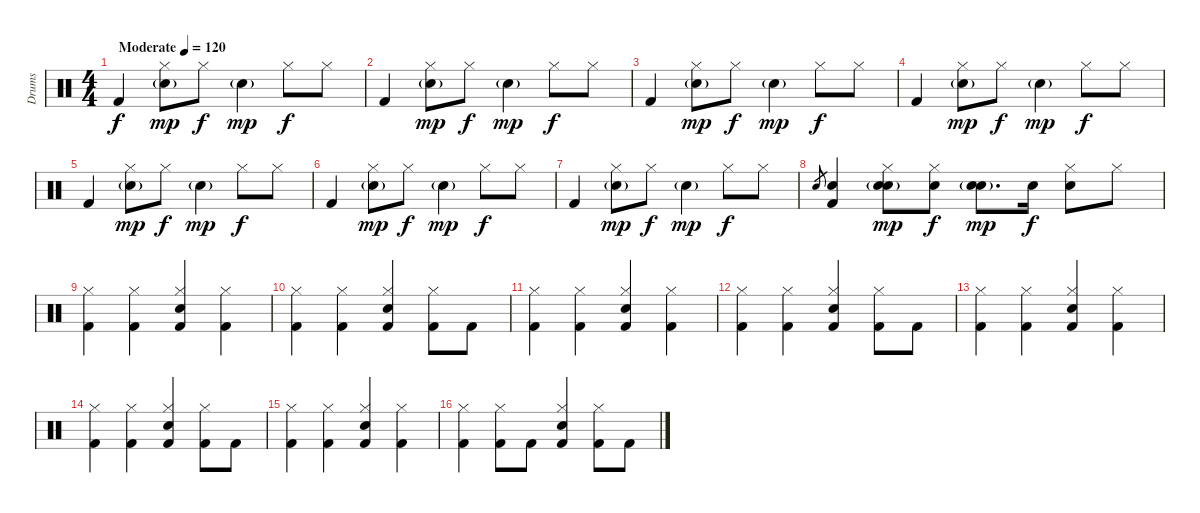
\track ("Drums" "Drums") {instrument percussion}
\staff {score}
\articulation defaults
\ts (4 4)
\tempo (120 "Moderate")
\clef neutral
\ks c "Kick (hit) 2".4{dy f}
("Hi-Hat (closed)" "Snare (hit) 2"{g}).8{dy mp} "Hi-Hat (closed)".8{dy f} "Snare (hit) 2"{g}.4{dy mp} "Hi-Hat (closed)".8{dy f} "Hi-Hat (closed)".8 |
"Kick (hit) 2".4 ("Hi-Hat (closed)" "Snare (hit) 2"{g}).8{dy mp} "Hi-Hat (closed)".8{dy f} "Snare (hit) 2"{g}.4{dy mp} "Hi-Hat (closed)".8{dy f} "Hi-Hat (closed)".8 |
"Kick (hit) 2".4 ("Hi-Hat (closed)" "Snare (hit) 2"{g}).8{dy mp} "Hi-Hat (closed)".8{dy f} "Snare (hit) 2"{g}.4{dy mp} "Hi-Hat (closed)".8{dy f} "Hi-Hat (closed)".8 |
"Kick (hit) 2".4 ("Hi-Hat (closed)" "Snare (hit) 2"{g}).8{dy mp} "Hi-Hat (closed)".8{dy f} "Snare (hit) 2"{g}.4{dy mp} "Hi-Hat (closed)".8{dy f} "Hi-Hat (closed)".8 |
"Kick (hit) 2".4 ("Hi-Hat (closed)" "Snare (hit) 2"{g}).8{dy mp} "Hi-Hat (closed)".8{dy f} "Snare (hit) 2"{g}.4{dy mp} "Hi-Hat (closed)".8{dy f} "Hi-Hat (closed)".8 |
"Kick (hit) 2".4 ("Hi-Hat (closed)" "Snare (hit) 2"{g}).8{dy mp} "Hi-Hat (closed)".8{dy f} "Snare (hit) 2"{g}.4{dy mp} "Hi-Hat (closed)".8{dy f} "Hi-Hat (closed)".8 |
"Kick (hit) 2".4 ("Hi-Hat (closed)" "Snare (hit) 2"{g}).8{dy mp} "Hi-Hat (closed)".8{dy f} "Snare (hit) 2"{g}.4{dy mp} "Hi-Hat (closed)".8{dy f} "Hi-Hat (closed)".8 |
"Electric Snare (hit)".8{gr} ("Electric Snare (hit)" "Kick (hit) 2").4 ("Hi-Hat (closed)" "Snare (hit) 2"{g} "Electric Snare (hit)").8{dy mp} ("Hi-Hat (closed)" "Electric Snare (hit)").8{dy f} ("Snare (hit) 2"{g} "Electric Snare (hit)").8{d dy mp} "Electric Snare (hit)".16{dy f} ("Hi-Hat (closed)" "Electric Snare (hit)").8 "Hi-Hat (closed)".8 |
("Hi-Hat (closed)" "Kick (hit) 2").4 ("Hi-Hat (closed)" "Kick (hit) 2").4 ("Hi-Hat (closed)" "Snare (hit) 2" "Kick (hit) 2").4 ("Hi-Hat (closed)" "Kick (hit) 2").4 |
("Hi-Hat (closed)" "Kick (hit) 2").4 ("Hi-Hat (closed)" "Kick (hit) 2").4 ("Hi-Hat (closed)" "Snare (hit) 2" "Kick (hit) 2").4 ("Hi-Hat (closed)" "Kick (hit) 2").8 "Kick (hit) 2".8 |
("Hi-Hat (closed)" "Kick (hit) 2").4 ("Hi-Hat (closed)" "Kick (hit) 2").4 ("Hi-Hat (closed)" "Snare (hit) 2" "Kick (hit) 2").4 ("Hi-Hat (closed)" "Kick (hit) 2").4 |
("Hi-Hat (closed)" "Kick (hit) 2").4 ("Hi-Hat (closed)" "Kick (hit) 2").4 ("Hi-Hat (closed)" "Snare (hit) 2" "Kick (hit) 2").4 ("Hi-Hat (closed)" "Kick (hit) 2").8 "Kick (hit) 2".8 |
("Hi-Hat (closed)" "Kick (hit) 2").4 ("Hi-Hat (closed)" "Kick (hit) 2").4 ("Hi-Hat (closed)" "Snare (hit) 2" "Kick (hit) 2").4 ("Hi-Hat (closed)" "Kick (hit) 2").4 |
("Hi-Hat (closed)" "Kick (hit) 2").4 ("Hi-Hat (closed)" "Kick (hit) 2").4 ("Hi-Hat (closed)" "Snare (hit) 2" "Kick (hit) 2").4 ("Hi-Hat (closed)" "Kick (hit) 2").8 "Kick (hit) 2".8 |
("Hi-Hat (closed)" "Kick (hit) 2").4 ("Hi-Hat (closed)" "Kick (hit) 2").4 ("Hi-Hat (closed)" "Snare (hit) 2" "Kick (hit) 2").4 ("Hi-Hat (closed)" "Kick (hit) 2").4 |
("Hi-Hat (closed)" "Kick (hit) 2").4 ("Hi-Hat (closed)" "Kick (hit) 2").8 "Kick (hit) 2".8 ("Hi-Hat (closed)" "Snare (hit) 2" "Kick (hit) 2").4 ("Hi-Hat (closed)" "Kick (hit) 2").8 "Kick (hit) 2".8
